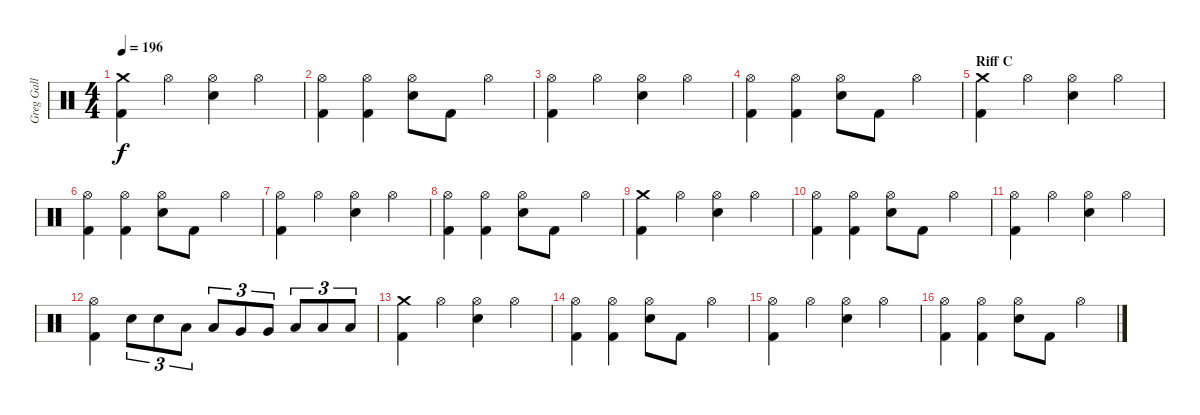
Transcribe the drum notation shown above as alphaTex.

\track ("Greg Gall" "Greg Gall") {instrument percussion}
\staff {score}
\articulation defaults
\ts (4 4)
\tempo 196
\clef neutral
\ks c
("Crash medium (hit)" "Kick (hit) 2").4{dy f} "Hi-Hat (open)".4 ("Hi-Hat (open)" "Electric Snare (hit)").4 "Hi-Hat (open)".4 |
("Hi-Hat (open)" "Kick (hit) 2").4 ("Hi-Hat (open)" "Kick (hit) 2").4 ("Hi-Hat (open)" "Electric Snare (hit)").8 "Kick (hit) 2".8 "Hi-Hat (open)".4 |
("Hi-Hat (open)" "Kick (hit) 2").4 "Hi-Hat (open)".4 ("Hi-Hat (open)" "Electric Snare (hit)").4 "Hi-Hat (open)".4 |
("Hi-Hat (open)" "Kick (hit) 2").4 ("Hi-Hat (open)" "Kick (hit) 2").4 ("Hi-Hat (open)" "Electric Snare (hit)").8 "Kick (hit) 2".8 "Hi-Hat (open)".4 |
\section ("" "Riff C")
("Crash medium (hit)" "Kick (hit) 2").4 "Hi-Hat (open)".4 ("Hi-Hat (open)" "Electric Snare (hit)").4 "Hi-Hat (open)".4 |
("Hi-Hat (open)" "Kick (hit) 2").4 ("Hi-Hat (open)" "Kick (hit) 2").4 ("Hi-Hat (open)" "Electric Snare (hit)").8 "Kick (hit) 2".8 "Hi-Hat (open)".4 |
("Hi-Hat (open)" "Kick (hit) 2").4 "Hi-Hat (open)".4 ("Hi-Hat (open)" "Electric Snare (hit)").4 "Hi-Hat (open)".4 |
("Hi-Hat (open)" "Kick (hit) 2").4 ("Hi-Hat (open)" "Kick (hit) 2").4 ("Hi-Hat (open)" "Electric Snare (hit)").8 "Kick (hit) 2".8 "Hi-Hat (open)".4 |
("Crash medium (hit)" "Kick (hit) 2").4 "Hi-Hat (open)".4 ("Hi-Hat (open)" "Electric Snare (hit)").4 "Hi-Hat (open)".4 |
("Hi-Hat (open)" "Kick (hit) 2").4 ("Hi-Hat (open)" "Kick (hit) 2").4 ("Hi-Hat (open)" "Electric Snare (hit)").8 "Kick (hit) 2".8 "Hi-Hat (open)".4 |
("Hi-Hat (open)" "Kick (hit) 2").4 "Hi-Hat (open)".4 ("Hi-Hat (open)" "Electric Snare (hit)").4 "Hi-Hat (open)".4 |
("Hi-Hat (open)" "Kick (hit) 2").4 "Electric Snare (hit)".8{tu (3 2)} "Electric Snare (hit)".8{tu (3 2)} "Low Tom (hit)".8{tu (3 2)} "Low Tom (hit)".8{tu (3 2)} "Very Low Tom (hit)".8{tu (3 2)} "Very Low Tom (hit)".8{tu (3 2)} "Low Floor Tom (hit)".8{tu (3 2)} "Low Floor Tom (hit)".8{tu (3 2)} "Low Floor Tom (hit)".8{tu (3 2)} |
("Crash medium (hit)" "Kick (hit) 2").4 "Hi-Hat (open)".4 ("Hi-Hat (open)" "Electric Snare (hit)").4 "Hi-Hat (open)".4 |
("Hi-Hat (open)" "Kick (hit) 2").4 ("Hi-Hat (open)" "Kick (hit) 2").4 ("Hi-Hat (open)" "Electric Snare (hit)").8 "Kick (hit) 2".8 "Hi-Hat (open)".4 |
("Hi-Hat (open)" "Kick (hit) 2").4 "Hi-Hat (open)".4 ("Hi-Hat (open)" "Electric Snare (hit)").4 "Hi-Hat (open)".4 |
("Hi-Hat (open)" "Kick (hit) 2").4 ("Hi-Hat (open)" "Kick (hit) 2").4 ("Hi-Hat (open)" "Electric Snare (hit)").8 "Kick (hit) 2".8 "Hi-Hat (open)".4
